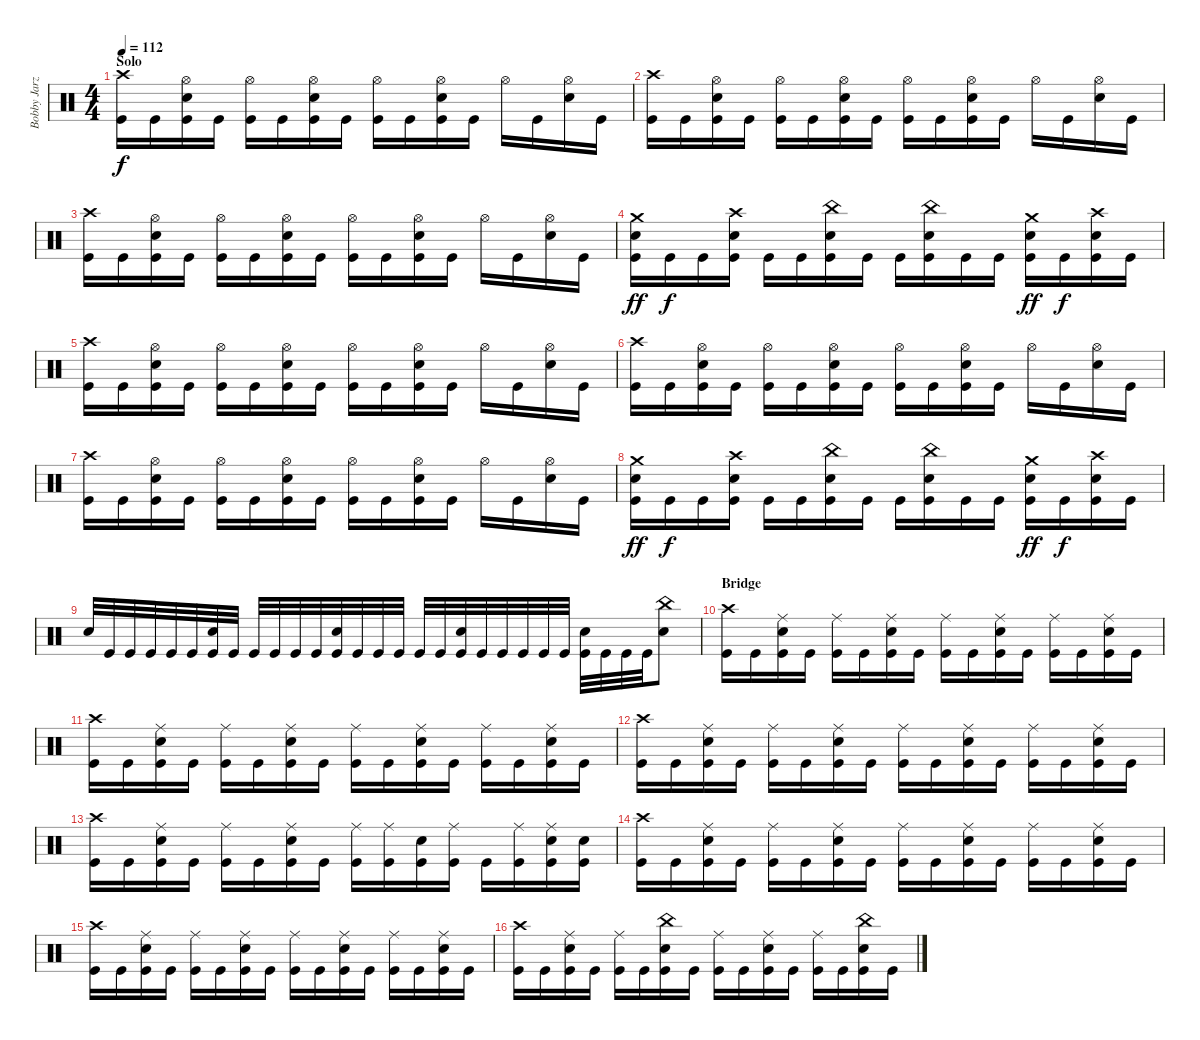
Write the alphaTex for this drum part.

\track ("Bobby Jarzombek" "Bobby Jarz") {instrument percussion}
\staff {score}
\articulation defaults
\ts (4 4)
\section ("" "Solo")
\tempo 112
\clef neutral
\ks c
("Crash high (hit)" "Kick (hit)").16{dy f} "Kick (hit)".16 ("Hi-Hat (open)" "Electric Snare (hit)" "Kick (hit)").16 "Kick (hit)".16 ("Hi-Hat (open)" "Kick (hit)").16 "Kick (hit)".16 ("Hi-Hat (open)" "Electric Snare (hit)" "Kick (hit)").16 "Kick (hit)".16 ("Hi-Hat (open)" "Kick (hit)").16 "Kick (hit)".16 ("Hi-Hat (open)" "Electric Snare (hit)" "Kick (hit)").16 "Kick (hit)".16 "Hi-Hat (open)".16 "Kick (hit)".16 ("Hi-Hat (open)" "Electric Snare (hit)").16 "Kick (hit)".16 |
("Crash high (hit)" "Kick (hit)").16 "Kick (hit)".16 ("Hi-Hat (open)" "Electric Snare (hit)" "Kick (hit)").16 "Kick (hit)".16 ("Hi-Hat (open)" "Kick (hit)").16 "Kick (hit)".16 ("Hi-Hat (open)" "Electric Snare (hit)" "Kick (hit)").16 "Kick (hit)".16 ("Hi-Hat (open)" "Kick (hit)").16 "Kick (hit)".16 ("Hi-Hat (open)" "Electric Snare (hit)" "Kick (hit)").16 "Kick (hit)".16 "Hi-Hat (open)".16 "Kick (hit)".16 ("Hi-Hat (open)" "Electric Snare (hit)").16 "Kick (hit)".16 |
("Crash high (hit)" "Kick (hit)").16 "Kick (hit)".16 ("Hi-Hat (open)" "Electric Snare (hit)" "Kick (hit)").16 "Kick (hit)".16 ("Hi-Hat (open)" "Kick (hit)").16 "Kick (hit)".16 ("Hi-Hat (open)" "Electric Snare (hit)" "Kick (hit)").16 "Kick (hit)".16 ("Hi-Hat (open)" "Kick (hit)").16 "Kick (hit)".16 ("Hi-Hat (open)" "Electric Snare (hit)" "Kick (hit)").16 "Kick (hit)".16 "Hi-Hat (open)".16 "Kick (hit)".16 ("Hi-Hat (open)" "Electric Snare (hit)").16 "Kick (hit)".16 |
("Crash medium (hit)" "Electric Snare (hit)" "Kick (hit)").16{dy ff} "Kick (hit)".16{dy f} "Kick (hit)".16 ("Crash high (hit)" "Electric Snare (hit)" "Kick (hit)").16 "Kick (hit)".16 "Kick (hit)".16 ("China (hit)" "Electric Snare (hit)" "Kick (hit)").16 "Kick (hit)".16 "Kick (hit)".16 ("China (hit)" "Electric Snare (hit)" "Kick (hit)").16 "Kick (hit)".16 "Kick (hit)".16 ("Crash medium (hit)" "Electric Snare (hit)" "Kick (hit)").16{dy ff} "Kick (hit)".16{dy f} ("Crash high (hit)" "Electric Snare (hit)" "Kick (hit)").16 "Kick (hit)".16 |
("Crash high (hit)" "Kick (hit)").16 "Kick (hit)".16 ("Hi-Hat (open)" "Electric Snare (hit)" "Kick (hit)").16 "Kick (hit)".16 ("Hi-Hat (open)" "Kick (hit)").16 "Kick (hit)".16 ("Hi-Hat (open)" "Electric Snare (hit)" "Kick (hit)").16 "Kick (hit)".16 ("Hi-Hat (open)" "Kick (hit)").16 "Kick (hit)".16 ("Hi-Hat (open)" "Electric Snare (hit)" "Kick (hit)").16 "Kick (hit)".16 "Hi-Hat (open)".16 "Kick (hit)".16 ("Hi-Hat (open)" "Electric Snare (hit)").16 "Kick (hit)".16 |
("Crash high (hit)" "Kick (hit)").16 "Kick (hit)".16 ("Hi-Hat (open)" "Electric Snare (hit)" "Kick (hit)").16 "Kick (hit)".16 ("Hi-Hat (open)" "Kick (hit)").16 "Kick (hit)".16 ("Hi-Hat (open)" "Electric Snare (hit)" "Kick (hit)").16 "Kick (hit)".16 ("Hi-Hat (open)" "Kick (hit)").16 "Kick (hit)".16 ("Hi-Hat (open)" "Electric Snare (hit)" "Kick (hit)").16 "Kick (hit)".16 "Hi-Hat (open)".16 "Kick (hit)".16 ("Hi-Hat (open)" "Electric Snare (hit)").16 "Kick (hit)".16 |
("Crash high (hit)" "Kick (hit)").16 "Kick (hit)".16 ("Hi-Hat (open)" "Electric Snare (hit)" "Kick (hit)").16 "Kick (hit)".16 ("Hi-Hat (open)" "Kick (hit)").16 "Kick (hit)".16 ("Hi-Hat (open)" "Electric Snare (hit)" "Kick (hit)").16 "Kick (hit)".16 ("Hi-Hat (open)" "Kick (hit)").16 "Kick (hit)".16 ("Hi-Hat (open)" "Electric Snare (hit)" "Kick (hit)").16 "Kick (hit)".16 "Hi-Hat (open)".16 "Kick (hit)".16 ("Hi-Hat (open)" "Electric Snare (hit)").16 "Kick (hit)".16 |
("Crash medium (hit)" "Electric Snare (hit)" "Kick (hit)").16{dy ff} "Kick (hit)".16{dy f} "Kick (hit)".16 ("Crash high (hit)" "Electric Snare (hit)" "Kick (hit)").16 "Kick (hit)".16 "Kick (hit)".16 ("China (hit)" "Electric Snare (hit)" "Kick (hit)").16 "Kick (hit)".16 "Kick (hit)".16 ("China (hit)" "Electric Snare (hit)" "Kick (hit)").16 "Kick (hit)".16 "Kick (hit)".16 ("Crash medium (hit)" "Electric Snare (hit)" "Kick (hit)").16{dy ff} "Kick (hit)".16{dy f} ("Crash high (hit)" "Electric Snare (hit)" "Kick (hit)").16 "Kick (hit)".16 |
"Electric Snare (hit)".32 "Kick (hit)".32 "Kick (hit)".32 "Kick (hit)".32 "Kick (hit)".32 "Kick (hit)".32 ("Electric Snare (hit)" "Kick (hit)").32 "Kick (hit)".32 "Kick (hit)".32 "Kick (hit)".32 "Kick (hit)".32 "Kick (hit)".32 ("Electric Snare (hit)" "Kick (hit)").32 "Kick (hit)".32 "Kick (hit)".32 "Kick (hit)".32 "Kick (hit)".32 "Kick (hit)".32 ("Electric Snare (hit)" "Kick (hit)").32 "Kick (hit)".32 "Kick (hit)".32 "Kick (hit)".32 "Kick (hit)".32 "Kick (hit)".32 ("Electric Snare (hit)" "Kick (hit)").32 "Kick (hit)".32 "Kick (hit)".32 "Kick (hit)".32 ("China (hit)" "Electric Snare (hit)").8 |
\section ("" "Bridge")
("Crash high (hit)" "Kick (hit)").16 "Kick (hit)".16 ("Ride (middle)" "Electric Snare (hit)" "Kick (hit)").16 "Kick (hit)".16 ("Ride (middle)" "Kick (hit)").16 "Kick (hit)".16 ("Ride (middle)" "Electric Snare (hit)" "Kick (hit)").16 "Kick (hit)".16 ("Ride (middle)" "Kick (hit)").16 "Kick (hit)".16 ("Ride (middle)" "Electric Snare (hit)" "Kick (hit)").16 "Kick (hit)".16 ("Ride (middle)" "Kick (hit)").16 "Kick (hit)".16 ("Ride (middle)" "Electric Snare (hit)" "Kick (hit)").16 "Kick (hit)".16 |
("Crash high (hit)" "Kick (hit)").16 "Kick (hit)".16 ("Ride (middle)" "Electric Snare (hit)" "Kick (hit)").16 "Kick (hit)".16 ("Ride (middle)" "Kick (hit)").16 "Kick (hit)".16 ("Ride (middle)" "Electric Snare (hit)" "Kick (hit)").16 "Kick (hit)".16 ("Ride (middle)" "Kick (hit)").16 "Kick (hit)".16 ("Ride (middle)" "Electric Snare (hit)" "Kick (hit)").16 "Kick (hit)".16 ("Ride (middle)" "Kick (hit)").16 "Kick (hit)".16 ("Ride (middle)" "Electric Snare (hit)" "Kick (hit)").16 "Kick (hit)".16 |
("Crash high (hit)" "Kick (hit)").16 "Kick (hit)".16 ("Ride (middle)" "Electric Snare (hit)" "Kick (hit)").16 "Kick (hit)".16 ("Ride (middle)" "Kick (hit)").16 "Kick (hit)".16 ("Ride (middle)" "Electric Snare (hit)" "Kick (hit)").16 "Kick (hit)".16 ("Ride (middle)" "Kick (hit)").16 "Kick (hit)".16 ("Ride (middle)" "Electric Snare (hit)" "Kick (hit)").16 "Kick (hit)".16 ("Ride (middle)" "Kick (hit)").16 "Kick (hit)".16 ("Ride (middle)" "Electric Snare (hit)" "Kick (hit)").16 "Kick (hit)".16 |
("Crash high (hit)" "Kick (hit)").16 "Kick (hit)".16 ("Ride (middle)" "Electric Snare (hit)" "Kick (hit)").16 "Kick (hit)".16 ("Ride (middle)" "Kick (hit)").16 "Kick (hit)".16 ("Ride (middle)" "Electric Snare (hit)" "Kick (hit)").16 "Kick (hit)".16 ("Ride (middle)" "Kick (hit)").16 ("Ride (middle)" "Kick (hit)").16 ("Electric Snare (hit)" "Kick (hit)").16 ("Ride (middle)" "Kick (hit)").16 "Kick (hit)".16 ("Ride (middle)" "Kick (hit)").16 ("Ride (middle)" "Electric Snare (hit)" "Kick (hit)").16 ("Electric Snare (hit)" "Kick (hit)").16 |
("Crash high (hit)" "Kick (hit)").16 "Kick (hit)".16 ("Ride (middle)" "Electric Snare (hit)" "Kick (hit)").16 "Kick (hit)".16 ("Ride (middle)" "Kick (hit)").16 "Kick (hit)".16 ("Ride (middle)" "Electric Snare (hit)" "Kick (hit)").16 "Kick (hit)".16 ("Ride (middle)" "Kick (hit)").16 "Kick (hit)".16 ("Ride (middle)" "Electric Snare (hit)" "Kick (hit)").16 "Kick (hit)".16 ("Ride (middle)" "Kick (hit)").16 "Kick (hit)".16 ("Ride (middle)" "Electric Snare (hit)" "Kick (hit)").16 "Kick (hit)".16 |
("Crash high (hit)" "Kick (hit)").16 "Kick (hit)".16 ("Ride (middle)" "Electric Snare (hit)" "Kick (hit)").16 "Kick (hit)".16 ("Ride (middle)" "Kick (hit)").16 "Kick (hit)".16 ("Ride (middle)" "Electric Snare (hit)" "Kick (hit)").16 "Kick (hit)".16 ("Ride (middle)" "Kick (hit)").16 "Kick (hit)".16 ("Ride (middle)" "Electric Snare (hit)" "Kick (hit)").16 "Kick (hit)".16 ("Ride (middle)" "Kick (hit)").16 "Kick (hit)".16 ("Ride (middle)" "Electric Snare (hit)" "Kick (hit)").16 "Kick (hit)".16 |
("Crash high (hit)" "Kick (hit)").16 "Kick (hit)".16 ("Ride (middle)" "Electric Snare (hit)" "Kick (hit)").16 "Kick (hit)".16 ("Ride (middle)" "Kick (hit)").16 "Kick (hit)".16 ("China (hit)" "Electric Snare (hit)" "Kick (hit)").16 "Kick (hit)".16 ("Ride (middle)" "Kick (hit)").16 "Kick (hit)".16 ("Ride (middle)" "Electric Snare (hit)" "Kick (hit)").16 "Kick (hit)".16 ("Ride (middle)" "Kick (hit)").16 "Kick (hit)".16 ("China (hit)" "Electric Snare (hit)" "Kick (hit)").16 "Kick (hit)".16
